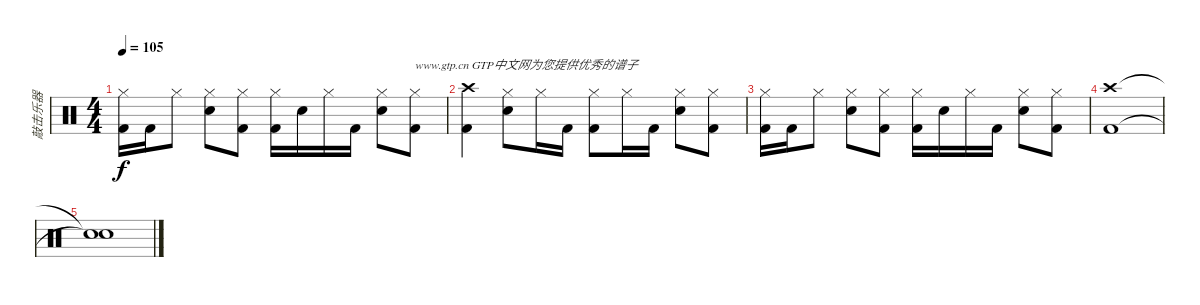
\track ("敲击乐器" "敲击乐器") {instrument percussion}
\staff {score}
\articulation defaults
\ts (4 4)
\tempo 105
\clef neutral
\ks c
("Hi-Hat (closed)" "Kick (hit) 2").16{dy f} "Kick (hit) 2".16 "Hi-Hat (closed)".8 ("Hi-Hat (closed)" "Snare (hit) 2").8 ("Hi-Hat (closed)" "Kick (hit) 2").8 ("Hi-Hat (closed)" "Kick (hit) 2").16 "Snare (hit) 2".16 "Hi-Hat (closed)".16 "Kick (hit) 2".16 ("Hi-Hat (closed)" "Snare (hit) 2").8 ("Hi-Hat (closed)" "Kick (hit) 2").8{txt "www.gtp.cn GTP中文网为您提供优秀的谱子"} |
("Crash high (hit)" "Kick (hit) 2").4 ("Hi-Hat (closed)" "Snare (hit) 2").8 "Hi-Hat (closed)".16 "Kick (hit) 2".16 ("Hi-Hat (closed)" "Kick (hit) 2").8 "Hi-Hat (closed)".16 "Kick (hit) 2".16 ("Hi-Hat (closed)" "Snare (hit) 2").8 ("Hi-Hat (closed)" "Kick (hit) 2").8 |
("Hi-Hat (closed)" "Kick (hit) 2").16 "Kick (hit) 2".16 "Hi-Hat (closed)".8 ("Hi-Hat (closed)" "Snare (hit) 2").8 ("Hi-Hat (closed)" "Kick (hit) 2").8 ("Hi-Hat (closed)" "Kick (hit) 2").16 "Snare (hit) 2".16 "Hi-Hat (closed)".16 "Kick (hit) 2".16 ("Hi-Hat (closed)" "Snare (hit) 2").8 ("Hi-Hat (closed)" "Kick (hit) 2").8 |
("Crash high (hit)" "Kick (hit) 2").1 |
("Snare (hit)"{t} "Snare (hit)"{t}).1
